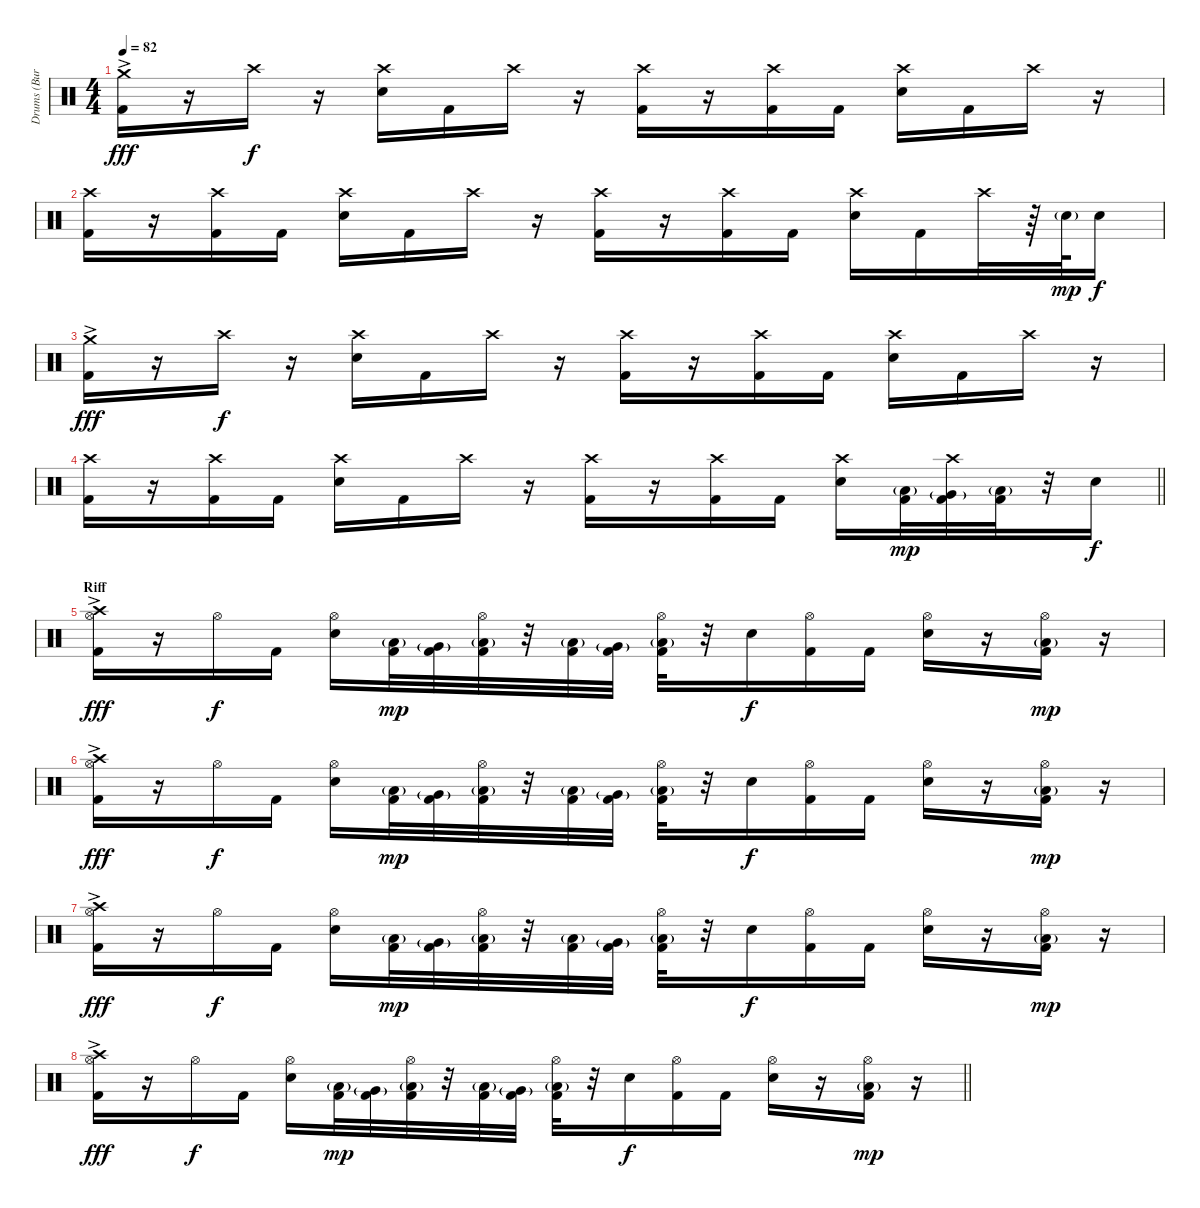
\track ("Drums (Burns)" "Drums (Bur") {instrument percussion}
\staff {score}
\articulation defaults
\ts (4 4)
\tempo 82
\clef neutral
\ks c
("Crash medium (hit)"{ac} "Kick (hit) 2").16{dy fff} r.16 "Crash high (hit)".16{dy f} r.16 ("Crash high (hit)" "Electric Snare (hit)").16 "Kick (hit) 2".16 "Crash high (hit)".16 r.16 ("Crash high (hit)" "Kick (hit) 2").16 r.16 ("Crash high (hit)" "Kick (hit) 2").16 "Kick (hit) 2".16 ("Crash high (hit)" "Electric Snare (hit)").16 "Kick (hit) 2".16 "Crash high (hit)".16 r.16 |
("Crash high (hit)" "Kick (hit) 2").16 r.16 ("Crash high (hit)" "Kick (hit) 2").16 "Kick (hit) 2".16 ("Crash high (hit)" "Electric Snare (hit)").16 "Kick (hit) 2".16 "Crash high (hit)".16 r.16 ("Crash high (hit)" "Kick (hit) 2").16 r.16 ("Crash high (hit)" "Kick (hit) 2").16 "Kick (hit) 2".16 ("Crash high (hit)" "Electric Snare (hit)").16 "Kick (hit) 2".16 "Crash high (hit)".32 r.64 "Electric Snare (hit)"{g}.64{dy mp} "Electric Snare (hit)".16{dy f} |
("Crash medium (hit)"{ac} "Kick (hit) 2").16{dy fff} r.16 "Crash high (hit)".16{dy f} r.16 ("Crash high (hit)" "Electric Snare (hit)").16 "Kick (hit) 2".16 "Crash high (hit)".16 r.16 ("Crash high (hit)" "Kick (hit) 2").16 r.16 ("Crash high (hit)" "Kick (hit) 2").16 "Kick (hit) 2".16 ("Crash high (hit)" "Electric Snare (hit)").16 "Kick (hit) 2".16 "Crash high (hit)".16 r.16 |
\barLineRight lightlight
("Crash high (hit)" "Kick (hit) 2").16 r.16 ("Crash high (hit)" "Kick (hit) 2").16 "Kick (hit) 2".16 ("Crash high (hit)" "Electric Snare (hit)").16 "Kick (hit) 2".16 "Crash high (hit)".16 r.16 ("Crash high (hit)" "Kick (hit) 2").16 r.16 ("Crash high (hit)" "Kick (hit) 2").16 "Kick (hit) 2".16 ("Crash high (hit)" "Electric Snare (hit)").16 ("Low Tom (hit)"{g} "Kick (hit) 2").32{dy mp} ("Crash high (hit)" "Very Low Tom (hit)"{g} "Kick (hit) 2").32 ("Low Floor Tom (hit)"{g} "Kick (hit) 2").32 r.32 "Electric Snare (hit)".16{dy f} |
\section ("" "Riff")
("Crash high (hit)"{ac} "Hi-Hat (open)" "Kick (hit) 2").16{dy fff} r.16 "Hi-Hat (open)".16{dy f} "Kick (hit) 2".16 ("Hi-Hat (open)" "Electric Snare (hit)").16 ("Low Tom (hit)"{g} "Kick (hit) 2").32{dy mp} ("Very Low Tom (hit)"{g} "Kick (hit) 2").32 ("Hi-Hat (open)" "Low Floor Tom (hit)"{g} "Kick (hit) 2").32 r.32 ("Low Tom (hit)"{g} "Kick (hit) 2").32 ("Very Low Tom (hit)"{g} "Kick (hit) 2").32 ("Hi-Hat (open)" "Low Floor Tom (hit)"{g} "Kick (hit) 2").32 r.32 "Electric Snare (hit)".16{dy f} ("Hi-Hat (open)" "Kick (hit) 2").16 "Kick (hit) 2".16 ("Hi-Hat (open)" "Electric Snare (hit)").16 r.16 ("Hi-Hat (open)" "Low Floor Tom (hit)"{g} "Kick (hit) 2").16{dy mp} r.16 |
("Crash high (hit)"{ac} "Hi-Hat (open)" "Kick (hit) 2").16{dy fff} r.16 "Hi-Hat (open)".16{dy f} "Kick (hit) 2".16 ("Hi-Hat (open)" "Electric Snare (hit)").16 ("Low Tom (hit)"{g} "Kick (hit) 2").32{dy mp} ("Very Low Tom (hit)"{g} "Kick (hit) 2").32 ("Hi-Hat (open)" "Low Floor Tom (hit)"{g} "Kick (hit) 2").32 r.32 ("Low Tom (hit)"{g} "Kick (hit) 2").32 ("Very Low Tom (hit)"{g} "Kick (hit) 2").32 ("Hi-Hat (open)" "Low Floor Tom (hit)"{g} "Kick (hit) 2").32 r.32 "Electric Snare (hit)".16{dy f} ("Hi-Hat (open)" "Kick (hit) 2").16 "Kick (hit) 2".16 ("Hi-Hat (open)" "Electric Snare (hit)").16 r.16 ("Hi-Hat (open)" "Low Floor Tom (hit)"{g} "Kick (hit) 2").16{dy mp} r.16 |
("Crash high (hit)"{ac} "Hi-Hat (open)" "Kick (hit) 2").16{dy fff} r.16 "Hi-Hat (open)".16{dy f} "Kick (hit) 2".16 ("Hi-Hat (open)" "Electric Snare (hit)").16 ("Low Tom (hit)"{g} "Kick (hit) 2").32{dy mp} ("Very Low Tom (hit)"{g} "Kick (hit) 2").32 ("Hi-Hat (open)" "Low Floor Tom (hit)"{g} "Kick (hit) 2").32 r.32 ("Low Tom (hit)"{g} "Kick (hit) 2").32 ("Very Low Tom (hit)"{g} "Kick (hit) 2").32 ("Hi-Hat (open)" "Low Floor Tom (hit)"{g} "Kick (hit) 2").32 r.32 "Electric Snare (hit)".16{dy f} ("Hi-Hat (open)" "Kick (hit) 2").16 "Kick (hit) 2".16 ("Hi-Hat (open)" "Electric Snare (hit)").16 r.16 ("Hi-Hat (open)" "Low Floor Tom (hit)"{g} "Kick (hit) 2").16{dy mp} r.16 |
\barLineRight lightlight
("Crash high (hit)"{ac} "Hi-Hat (open)" "Kick (hit) 2").16{dy fff} r.16 "Hi-Hat (open)".16{dy f} "Kick (hit) 2".16 ("Hi-Hat (open)" "Electric Snare (hit)").16 ("Low Tom (hit)"{g} "Kick (hit) 2").32{dy mp} ("Very Low Tom (hit)"{g} "Kick (hit) 2").32 ("Hi-Hat (open)" "Low Floor Tom (hit)"{g} "Kick (hit) 2").32 r.32 ("Low Tom (hit)"{g} "Kick (hit) 2").32 ("Very Low Tom (hit)"{g} "Kick (hit) 2").32 ("Hi-Hat (open)" "Low Floor Tom (hit)"{g} "Kick (hit) 2").32 r.32 "Electric Snare (hit)".16{dy f} ("Hi-Hat (open)" "Kick (hit) 2").16 "Kick (hit) 2".16 ("Hi-Hat (open)" "Electric Snare (hit)").16 r.16 ("Hi-Hat (open)" "Low Floor Tom (hit)"{g} "Kick (hit) 2").16{dy mp} r.16
